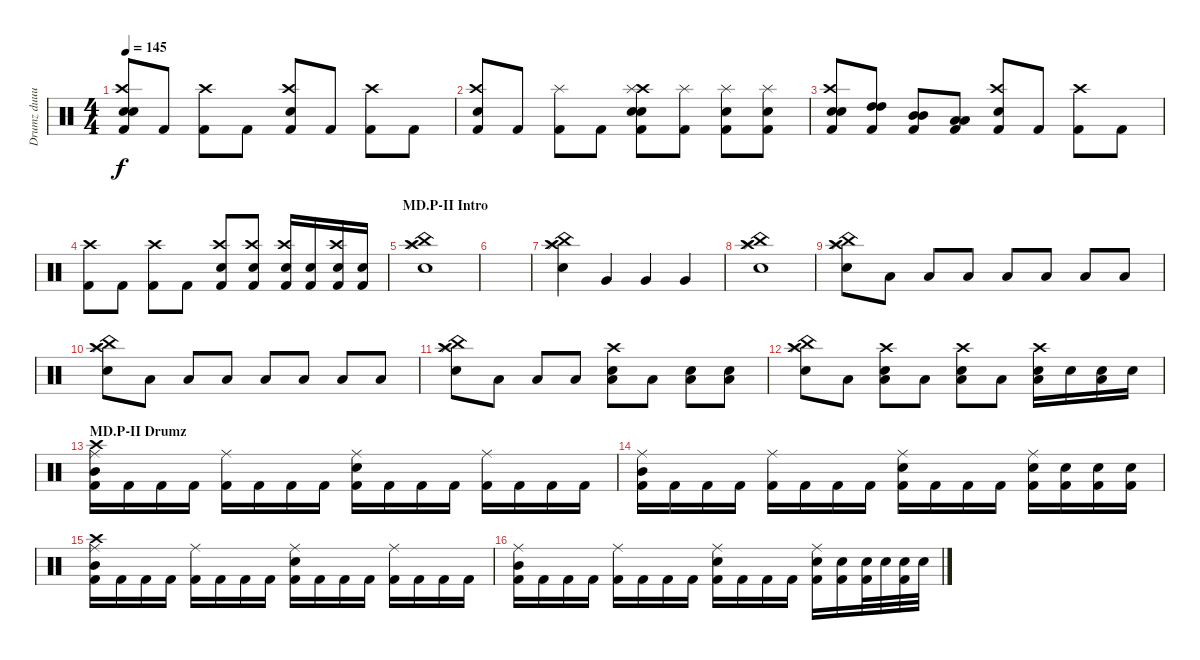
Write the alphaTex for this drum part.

\track ("Drumz duuuuude" "Drumz duuu") {instrument percussion}
\staff {score}
\articulation defaults
\ts (4 4)
\tempo 145
\clef neutral
\ks c
("Kick (hit) 2" "Crash high (hit)" "Snare (hit) 2" "Electric Snare (hit)").8{dy f} "Kick (hit) 2".8 ("Kick (hit) 2" "Crash high (hit)").8 "Kick (hit) 2".8 ("Kick (hit) 2" "Crash high (hit)" "Electric Snare (hit)").8 "Kick (hit) 2".8 ("Kick (hit) 2" "Crash high (hit)").8 "Kick (hit) 2".8 |
("Crash high (hit)" "Kick (hit) 2" "Electric Snare (hit)").8 "Kick (hit) 2".8 ("Kick (hit) 2" "Splash (hit)").8 "Kick (hit) 2".8 ("Crash high (hit)" "Kick (hit) 2" "Splash (hit)" "Snare (hit) 2" "Electric Snare (hit)").8 ("Kick (hit) 2" "Splash (hit)").8 ("Kick (hit) 2" "Splash (hit)" "Electric Snare (hit)").8 ("Kick (hit) 2" "Splash (hit)" "Electric Snare (hit)").8 |
("Kick (hit) 2" "Crash high (hit)" "Snare (hit) 2" "Electric Snare (hit)").8 ("Kick (hit) 2" "High Tom (hit)" "High Tom (hit)").8 ("Kick (hit) 2" "Mid Tom (hit)" "Mid Tom (hit)").8 ("Kick (hit) 2" "Low Tom (hit)" "Low Tom (hit)").8 ("Kick (hit) 2" "Crash high (hit)" "Electric Snare (hit)").8 "Kick (hit) 2".8 ("Kick (hit) 2" "Crash high (hit)").8 "Kick (hit) 2".8 |
("Crash high (hit)" "Kick (hit) 2").8 "Kick (hit) 2".8 ("Crash high (hit)" "Kick (hit) 2").8 "Kick (hit) 2".8 ("Crash high (hit)" "Kick (hit) 2" "Snare (hit) 2").8 ("Crash high (hit)" "Kick (hit) 2" "Electric Snare (hit)").8 ("Crash high (hit)" "Kick (hit) 2" "Electric Snare (hit)").16 ("Kick (hit) 2" "Electric Snare (hit)").16 ("Crash high (hit)" "Kick (hit) 2" "Electric Snare (hit)").16 ("Kick (hit) 2" "Electric Snare (hit)").16 |
\section ("" "MD.P-II Intro")
("Crash high (hit)" "China (hit)" "Splash (hit)" "Snare (hit) 2").1 |
|
("Crash high (hit)" "China (hit)" "Splash (hit)" "Snare (hit) 2").4 "Very Low Tom (hit)".4 "Very Low Tom (hit)".4 "Very Low Tom (hit)".4 |
("Crash high (hit)" "China (hit)" "Splash (hit)" "Snare (hit) 2").1 |
("Crash high (hit)" "China (hit)" "Splash (hit)" "Snare (hit) 2").8 "Low Tom (hit)".8 "Low Tom (hit)".8 "Low Tom (hit)".8 "Low Tom (hit)".8 "Low Tom (hit)".8 "Low Tom (hit)".8 "Low Tom (hit)".8 |
("Crash high (hit)" "China (hit)" "Splash (hit)" "Snare (hit) 2").8 "Low Tom (hit)".8 "Low Tom (hit)".8 "Low Tom (hit)".8 "Low Tom (hit)".8 "Low Tom (hit)".8 "Low Tom (hit)".8 "Low Tom (hit)".8 |
("Crash high (hit)" "China (hit)" "Splash (hit)" "Snare (hit) 2").8 "Low Tom (hit)".8 "Low Tom (hit)".8 "Low Tom (hit)".8 ("Crash high (hit)" "Snare (hit) 2" "Low Tom (hit)").8 "Low Tom (hit)".8 ("Snare (hit) 2" "Low Tom (hit)").8 ("Snare (hit) 2" "Low Tom (hit)").8 |
("Crash high (hit)" "China (hit)" "Splash (hit)" "Snare (hit) 2").8 "Low Tom (hit)".8 ("Crash high (hit)" "Electric Snare (hit)" "Low Tom (hit)").8 "Low Tom (hit)".8 ("Crash high (hit)" "Electric Snare (hit)" "Low Tom (hit)").8 "Low Tom (hit)".8 ("Crash high (hit)" "Electric Snare (hit)" "Low Tom (hit)").16 "Electric Snare (hit)".16 ("Electric Snare (hit)" "Low Tom (hit)").16 "Electric Snare (hit)".16 |
\section ("" "MD.P-II Drumz")
("Crash high (hit)" "Ride (middle)" "Kick (hit) 2" "Mid Tom (hit)").16 "Kick (hit) 2".16 "Kick (hit) 2".16 "Kick (hit) 2".16 ("Ride (middle)" "Kick (hit) 2").16 "Kick (hit) 2".16 "Kick (hit) 2".16 "Kick (hit) 2".16 ("Ride (middle)" "Kick (hit) 2" "Electric Snare (hit)").16 "Kick (hit) 2".16 "Kick (hit) 2".16 "Kick (hit) 2".16 ("Ride (middle)" "Kick (hit) 2").16 "Kick (hit) 2".16 "Kick (hit) 2".16 "Kick (hit) 2".16 |
("Ride (middle)" "Kick (hit) 2" "Mid Tom (hit)").16 "Kick (hit) 2".16 "Kick (hit) 2".16 "Kick (hit) 2".16 ("Ride (middle)" "Kick (hit) 2").16 "Kick (hit) 2".16 "Kick (hit) 2".16 "Kick (hit) 2".16 ("Ride (middle)" "Kick (hit) 2" "Electric Snare (hit)").16 "Kick (hit) 2".16 "Kick (hit) 2".16 "Kick (hit) 2".16 ("Ride (middle)" "Kick (hit) 2" "Electric Snare (hit)").16 ("Kick (hit) 2" "Electric Snare (hit)").16 ("Kick (hit) 2" "Electric Snare (hit)").16 ("Kick (hit) 2" "Electric Snare (hit)").16 |
("Crash high (hit)" "Ride (middle)" "Kick (hit) 2" "Mid Tom (hit)").16 "Kick (hit) 2".16 "Kick (hit) 2".16 "Kick (hit) 2".16 ("Ride (middle)" "Kick (hit) 2").16 "Kick (hit) 2".16 "Kick (hit) 2".16 "Kick (hit) 2".16 ("Ride (middle)" "Kick (hit) 2" "Electric Snare (hit)").16 "Kick (hit) 2".16 "Kick (hit) 2".16 "Kick (hit) 2".16 ("Ride (middle)" "Kick (hit) 2").16 "Kick (hit) 2".16 "Kick (hit) 2".16 "Kick (hit) 2".16 |
("Ride (middle)" "Kick (hit) 2" "Mid Tom (hit)").16 "Kick (hit) 2".16 "Kick (hit) 2".16 "Kick (hit) 2".16 ("Ride (middle)" "Kick (hit) 2").16 "Kick (hit) 2".16 "Kick (hit) 2".16 "Kick (hit) 2".16 ("Ride (middle)" "Kick (hit) 2" "Electric Snare (hit)").16 "Kick (hit) 2".16 "Kick (hit) 2".16 "Kick (hit) 2".16 ("Ride (middle)" "Kick (hit) 2" "Electric Snare (hit)").16 ("Kick (hit) 2" "Electric Snare (hit)").16 ("Kick (hit) 2" "Electric Snare (hit)").32 "Electric Snare (hit)".32 ("Kick (hit) 2" "Electric Snare (hit)").32 "Electric Snare (hit)".32
